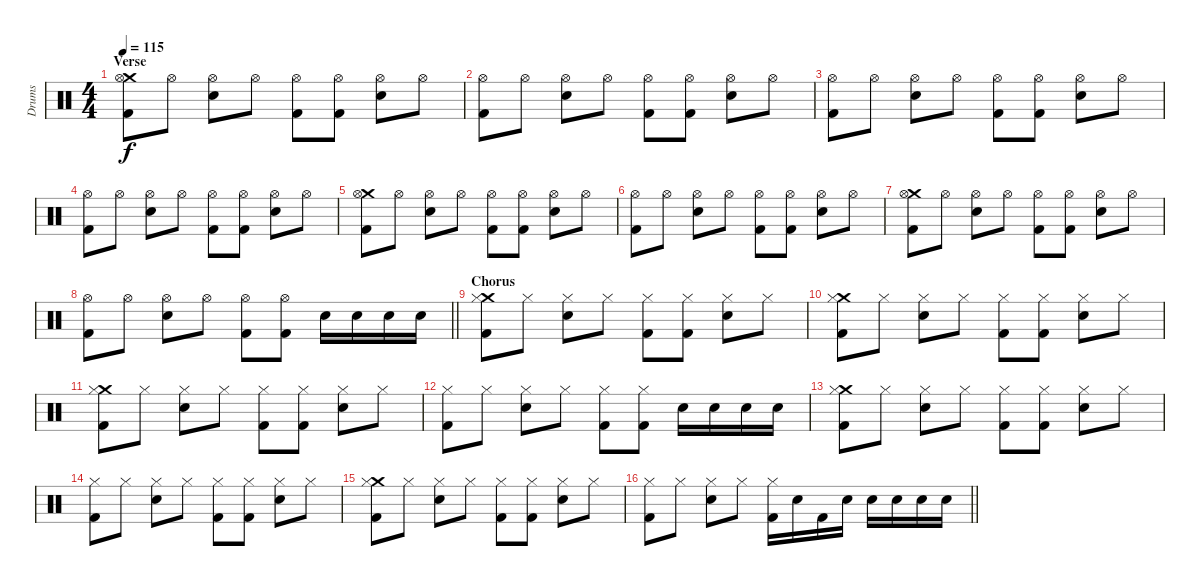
\track ("Drums" "Drums") {instrument percussion}
\staff {score}
\articulation defaults
\ts (4 4)
\section ("" "Verse")
\tempo 115
\clef neutral
\ks c
("Kick (hit) 2" "Crash medium (hit)" "Hi-Hat (open)").8{dy f} "Hi-Hat (open)".8 ("Hi-Hat (open)" "Electric Snare (hit)").8 "Hi-Hat (open)".8 ("Kick (hit) 2" "Hi-Hat (open)").8 ("Kick (hit) 2" "Hi-Hat (open)").8 ("Hi-Hat (open)" "Electric Snare (hit)").8 "Hi-Hat (open)".8 |
("Kick (hit) 2" "Hi-Hat (open)").8 "Hi-Hat (open)".8 ("Hi-Hat (open)" "Electric Snare (hit)").8 "Hi-Hat (open)".8 ("Kick (hit) 2" "Hi-Hat (open)").8 ("Kick (hit) 2" "Hi-Hat (open)").8 ("Hi-Hat (open)" "Electric Snare (hit)").8 "Hi-Hat (open)".8 |
("Kick (hit) 2" "Hi-Hat (open)").8 "Hi-Hat (open)".8 ("Hi-Hat (open)" "Electric Snare (hit)").8 "Hi-Hat (open)".8 ("Kick (hit) 2" "Hi-Hat (open)").8 ("Kick (hit) 2" "Hi-Hat (open)").8 ("Hi-Hat (open)" "Electric Snare (hit)").8 "Hi-Hat (open)".8 |
("Kick (hit) 2" "Hi-Hat (open)").8 "Hi-Hat (open)".8 ("Hi-Hat (open)" "Electric Snare (hit)").8 "Hi-Hat (open)".8 ("Kick (hit) 2" "Hi-Hat (open)").8 ("Kick (hit) 2" "Hi-Hat (open)").8 ("Hi-Hat (open)" "Snare (hit) 2").8 "Hi-Hat (open)".8 |
("Kick (hit) 2" "Crash medium (hit)" "Hi-Hat (open)").8 "Hi-Hat (open)".8 ("Hi-Hat (open)" "Electric Snare (hit)").8 "Hi-Hat (open)".8 ("Kick (hit) 2" "Hi-Hat (open)").8 ("Kick (hit) 2" "Hi-Hat (open)").8 ("Hi-Hat (open)" "Electric Snare (hit)").8 "Hi-Hat (open)".8 |
("Kick (hit) 2" "Hi-Hat (open)").8 "Hi-Hat (open)".8 ("Hi-Hat (open)" "Electric Snare (hit)").8 "Hi-Hat (open)".8 ("Kick (hit) 2" "Hi-Hat (open)").8 ("Kick (hit) 2" "Hi-Hat (open)").8 ("Hi-Hat (open)" "Electric Snare (hit)").8 "Hi-Hat (open)".8 |
("Kick (hit) 2" "Crash medium (hit)" "Hi-Hat (open)").8 "Hi-Hat (open)".8 ("Hi-Hat (open)" "Electric Snare (hit)").8 "Hi-Hat (open)".8 ("Kick (hit) 2" "Hi-Hat (open)").8 ("Kick (hit) 2" "Hi-Hat (open)").8 ("Hi-Hat (open)" "Electric Snare (hit)").8 "Hi-Hat (open)".8 |
\barLineRight lightlight
("Kick (hit) 2" "Hi-Hat (open)").8 "Hi-Hat (open)".8 ("Hi-Hat (open)" "Electric Snare (hit)").8 "Hi-Hat (open)".8 ("Kick (hit) 2" "Hi-Hat (open)").8 ("Kick (hit) 2" "Hi-Hat (open)").8 "Electric Snare (hit)".16 "Electric Snare (hit)".16 "Electric Snare (hit)".16 "Electric Snare (hit)".16 |
\section ("" "Chorus")
("Kick (hit) 2" "Crash medium (hit)" "Hi-Hat (closed)").8 "Hi-Hat (closed)".8 ("Hi-Hat (closed)" "Electric Snare (hit)").8 "Hi-Hat (closed)".8 ("Kick (hit) 2" "Hi-Hat (closed)").8 ("Kick (hit) 2" "Hi-Hat (closed)").8 ("Hi-Hat (closed)" "Electric Snare (hit)").8 "Hi-Hat (closed)".8 |
("Kick (hit) 2" "Crash medium (hit)" "Hi-Hat (closed)").8 "Hi-Hat (closed)".8 ("Hi-Hat (closed)" "Electric Snare (hit)").8 "Hi-Hat (closed)".8 ("Kick (hit) 2" "Hi-Hat (closed)").8 ("Kick (hit) 2" "Hi-Hat (closed)").8 ("Hi-Hat (closed)" "Electric Snare (hit)").8 "Hi-Hat (closed)".8 |
("Kick (hit) 2" "Crash medium (hit)" "Hi-Hat (closed)").8 "Hi-Hat (closed)".8 ("Hi-Hat (closed)" "Electric Snare (hit)").8 "Hi-Hat (closed)".8 ("Kick (hit) 2" "Hi-Hat (closed)").8 ("Kick (hit) 2" "Hi-Hat (closed)").8 ("Hi-Hat (closed)" "Electric Snare (hit)").8 "Hi-Hat (closed)".8 |
("Kick (hit) 2" "Hi-Hat (closed)").8 "Hi-Hat (closed)".8 ("Hi-Hat (closed)" "Electric Snare (hit)").8 "Hi-Hat (closed)".8 ("Kick (hit) 2" "Hi-Hat (closed)").8 ("Kick (hit) 2" "Hi-Hat (closed)").8 "Electric Snare (hit)".16 "Electric Snare (hit)".16 "Electric Snare (hit)".16 "Electric Snare (hit)".16 |
("Kick (hit) 2" "Crash medium (hit)" "Hi-Hat (closed)").8 "Hi-Hat (closed)".8 ("Hi-Hat (closed)" "Electric Snare (hit)").8 "Hi-Hat (closed)".8 ("Kick (hit) 2" "Hi-Hat (closed)").8 ("Kick (hit) 2" "Hi-Hat (closed)").8 ("Hi-Hat (closed)" "Electric Snare (hit)").8 "Hi-Hat (closed)".8 |
("Kick (hit) 2" "Hi-Hat (closed)").8 "Hi-Hat (closed)".8 ("Hi-Hat (closed)" "Electric Snare (hit)").8 "Hi-Hat (closed)".8 ("Kick (hit) 2" "Hi-Hat (closed)").8 ("Kick (hit) 2" "Hi-Hat (closed)").8 ("Hi-Hat (closed)" "Electric Snare (hit)").8 "Hi-Hat (closed)".8 |
("Kick (hit) 2" "Crash medium (hit)" "Hi-Hat (closed)").8 "Hi-Hat (closed)".8 ("Hi-Hat (closed)" "Electric Snare (hit)").8 "Hi-Hat (closed)".8 ("Kick (hit) 2" "Hi-Hat (closed)").8 ("Kick (hit) 2" "Hi-Hat (closed)").8 ("Hi-Hat (closed)" "Electric Snare (hit)").8 "Hi-Hat (closed)".8 |
\barLineRight lightlight
("Kick (hit) 2" "Hi-Hat (closed)").8 "Hi-Hat (closed)".8 ("Hi-Hat (closed)" "Electric Snare (hit)").8 "Hi-Hat (closed)".8 ("Kick (hit) 2" "Hi-Hat (closed)").16 "Electric Snare (hit)".16 "Kick (hit) 2".16 "Electric Snare (hit)".16 "Electric Snare (hit)".16 "Electric Snare (hit)".16 "Electric Snare (hit)".16 "Electric Snare (hit)".16
